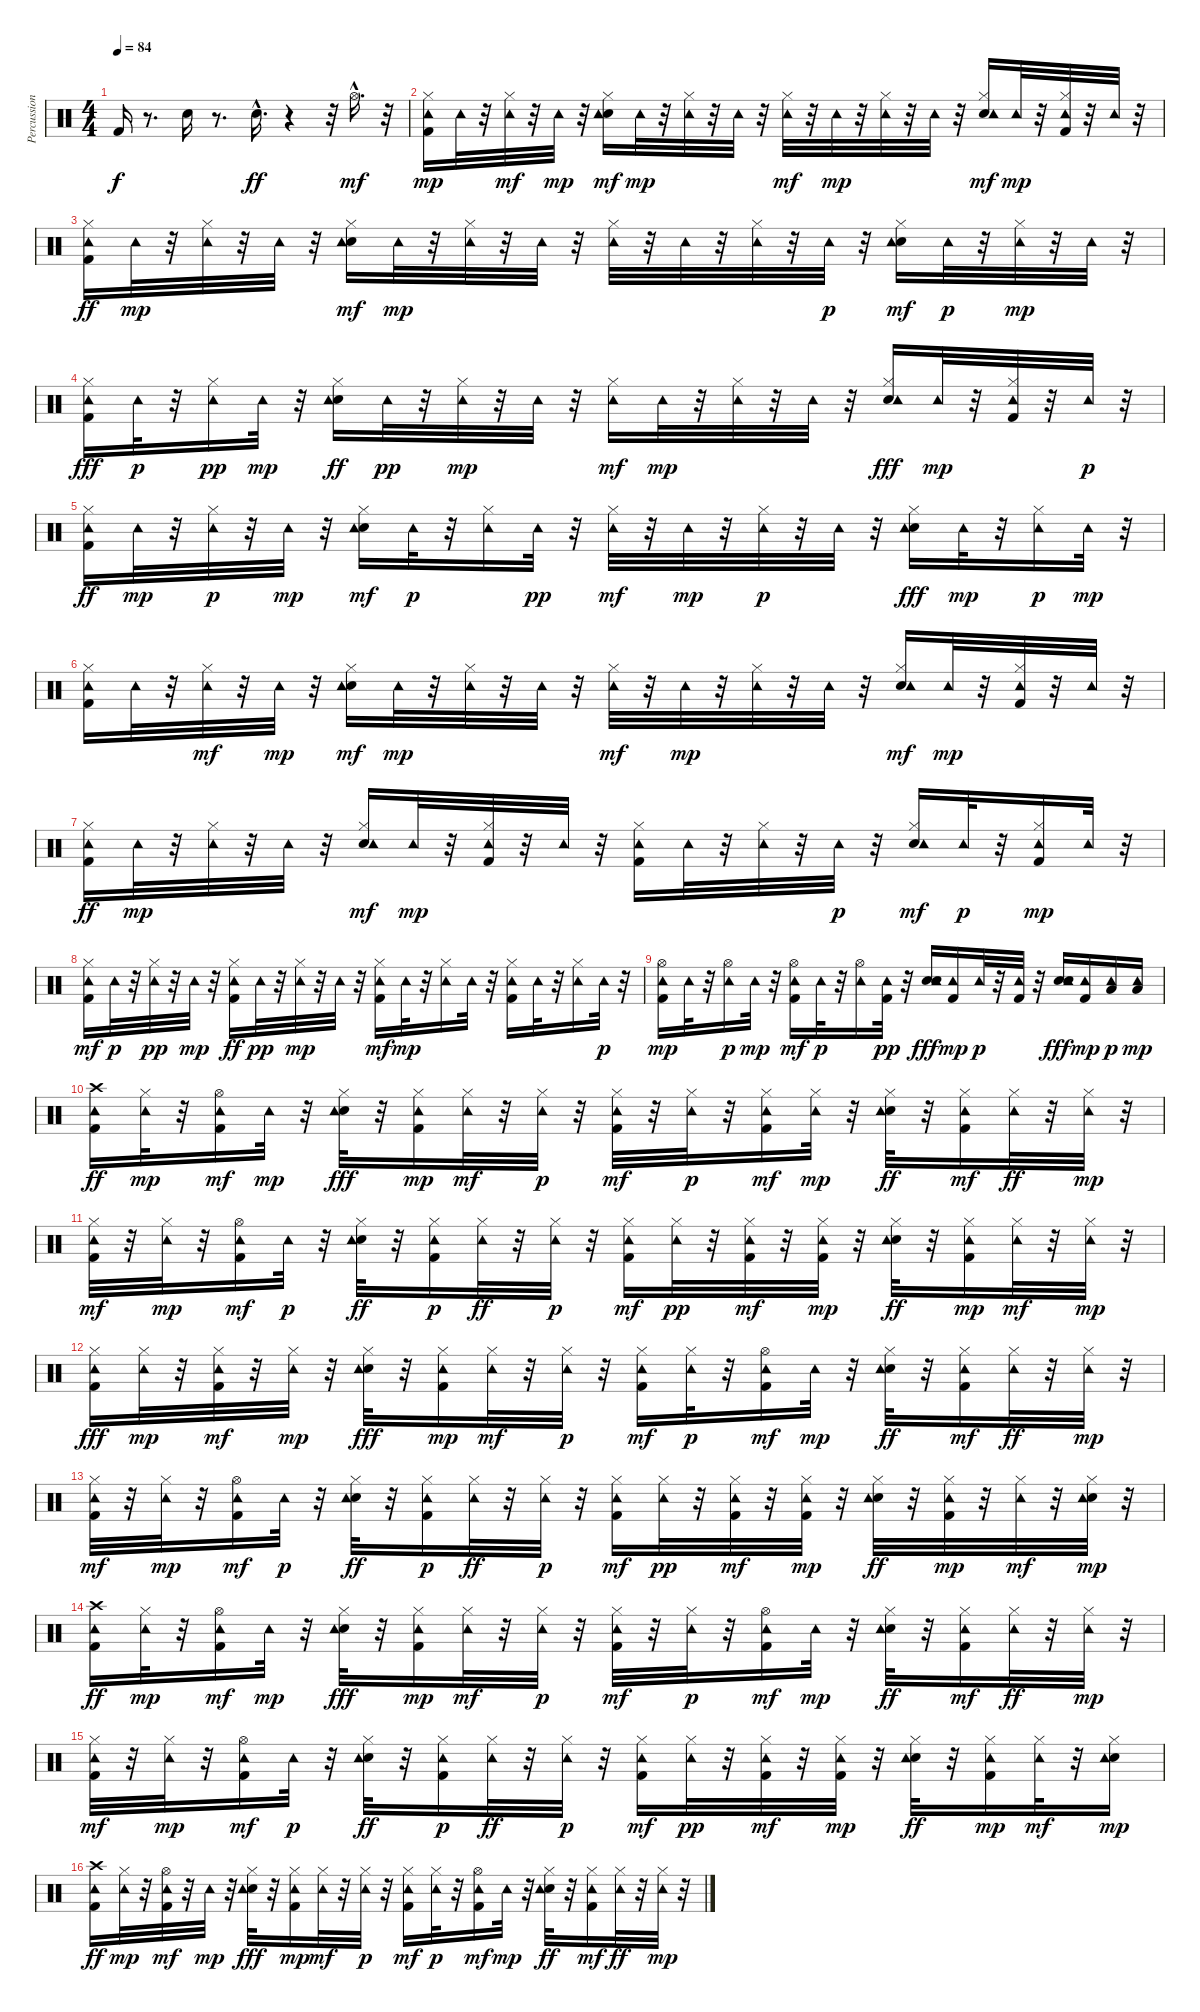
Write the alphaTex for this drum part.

\track ("Percussions" "Percussion") {instrument percussion}
\staff {score}
\articulation defaults
\ts (4 4)
\tempo 84
\clef neutral
\ks c "Kick (hit) 2".16{dy f}
r.8{d} "Snare (hit) 2".16 r.8{d} "Snare (hit) 2"{hac}.16{d dy ff} r.4 r.32 "Hi-Hat (open)"{hac}.16{d dy mf} r.32 |
("Kick (hit) 2" "Hi-Hat (closed)" "Tambourine (hit)").16{dy mp} "Tambourine (hit)".32 r.32 ("Hi-Hat (closed)" "Tambourine (hit)").32{dy mf} r.32 "Tambourine (hit)".32{dy mp} r.32 ("Snare (hit) 2" "Hi-Hat (closed)" "Tambourine (hit)").16{dy mf} "Tambourine (hit)".32{dy mp} r.32 ("Hi-Hat (closed)" "Tambourine (hit)").32 r.32 "Tambourine (hit)".32 r.32 ("Hi-Hat (closed)" "Tambourine (hit)").32{dy mf} r.32 "Tambourine (hit)".32{dy mp} r.32 ("Hi-Hat (closed)" "Tambourine (hit)").32 r.32 "Tambourine (hit)".32 r.32 ("Snare (hit) 2" "Hi-Hat (closed)" "Tambourine (hit)").16{dy mf} "Tambourine (hit)".32{dy mp} r.32 ("Hi-Hat (closed)" "Kick (hit) 2" "Tambourine (hit)").32 r.32 "Tambourine (hit)".32 r.32 |
("Hi-Hat (closed)" "Kick (hit) 2" "Tambourine (hit)").16{dy ff} "Tambourine (hit)".32{dy mp} r.32 ("Hi-Hat (closed)" "Tambourine (hit)").32 r.32 "Tambourine (hit)".32 r.32 ("Snare (hit) 2" "Hi-Hat (closed)" "Tambourine (hit)").16{dy mf} "Tambourine (hit)".32{dy mp} r.32 ("Hi-Hat (closed)" "Tambourine (hit)").32 r.32 "Tambourine (hit)".32 r.32 ("Hi-Hat (closed)" "Tambourine (hit)").32 r.32 "Tambourine (hit)".32 r.32 ("Hi-Hat (closed)" "Tambourine (hit)").32 r.32 "Tambourine (hit)".32{dy p} r.32 ("Snare (hit) 2" "Hi-Hat (closed)" "Tambourine (hit)").16{dy mf} "Tambourine (hit)".32{dy p} r.32 ("Hi-Hat (closed)" "Tambourine (hit)").32{dy mp} r.32 "Tambourine (hit)".32 r.32 |
("Hi-Hat (closed)" "Kick (hit) 2" "Tambourine (hit)").16{dy fff} "Tambourine (hit)".32{dy p} r.32 ("Hi-Hat (closed)" "Tambourine (hit)").16{dy pp} "Tambourine (hit)".32{dy mp} r.32 ("Snare (hit) 2" "Hi-Hat (closed)" "Tambourine (hit)").16{dy ff} "Tambourine (hit)".32{dy pp} r.32 ("Hi-Hat (closed)" "Tambourine (hit)").32{dy mp} r.32 "Tambourine (hit)".32 r.32 ("Hi-Hat (closed)" "Tambourine (hit)").16{dy mf} "Tambourine (hit)".32{dy mp} r.32 ("Hi-Hat (closed)" "Tambourine (hit)").32 r.32 "Tambourine (hit)".32 r.32 ("Snare (hit) 2" "Hi-Hat (closed)" "Tambourine (hit)").16{dy fff} "Tambourine (hit)".32{dy mp} r.32 ("Kick (hit) 2" "Hi-Hat (closed)" "Tambourine (hit)").32 r.32 "Tambourine (hit)".32{dy p} r.32 |
("Hi-Hat (closed)" "Kick (hit) 2" "Tambourine (hit)").16{dy ff} "Tambourine (hit)".32{dy mp} r.32 ("Hi-Hat (closed)" "Tambourine (hit)").32{dy p} r.32 "Tambourine (hit)".32{dy mp} r.32 ("Snare (hit) 2" "Hi-Hat (closed)" "Tambourine (hit)").16{dy mf} "Tambourine (hit)".32{dy p} r.32 ("Hi-Hat (closed)" "Tambourine (hit)").16 "Tambourine (hit)".32{dy pp} r.32 ("Hi-Hat (closed)" "Tambourine (hit)").32{dy mf} r.32 "Tambourine (hit)".32{dy mp} r.32 ("Hi-Hat (closed)" "Tambourine (hit)").32{dy p} r.32 "Tambourine (hit)".32 r.32 ("Snare (hit) 2" "Hi-Hat (closed)" "Tambourine (hit)").16{dy fff} "Tambourine (hit)".32{dy mp} r.32 ("Hi-Hat (closed)" "Tambourine (hit)").16{dy p} "Tambourine (hit)".32{dy mp} r.32 |
("Kick (hit) 2" "Hi-Hat (closed)" "Tambourine (hit)").16 "Tambourine (hit)".32 r.32 ("Hi-Hat (closed)" "Tambourine (hit)").32{dy mf} r.32 "Tambourine (hit)".32{dy mp} r.32 ("Snare (hit) 2" "Hi-Hat (closed)" "Tambourine (hit)").16{dy mf} "Tambourine (hit)".32{dy mp} r.32 ("Hi-Hat (closed)" "Tambourine (hit)").32 r.32 "Tambourine (hit)".32 r.32 ("Hi-Hat (closed)" "Tambourine (hit)").32{dy mf} r.32 "Tambourine (hit)".32{dy mp} r.32 ("Hi-Hat (closed)" "Tambourine (hit)").32 r.32 "Tambourine (hit)".32 r.32 ("Snare (hit) 2" "Hi-Hat (closed)" "Tambourine (hit)").16{dy mf} "Tambourine (hit)".32{dy mp} r.32 ("Hi-Hat (closed)" "Kick (hit) 2" "Tambourine (hit)").32 r.32 "Tambourine (hit)".32 r.32 |
("Hi-Hat (closed)" "Kick (hit) 2" "Tambourine (hit)").16{dy ff} "Tambourine (hit)".32{dy mp} r.32 ("Hi-Hat (closed)" "Tambourine (hit)").32 r.32 "Tambourine (hit)".32 r.32 ("Snare (hit) 2" "Hi-Hat (closed)" "Tambourine (hit)").16{dy mf} "Tambourine (hit)".32{dy mp} r.32 ("Kick (hit) 2" "Hi-Hat (closed)" "Tambourine (hit)").32 r.32 "Tambourine (hit)".32 r.32 ("Kick (hit) 2" "Hi-Hat (closed)" "Tambourine (hit)").16 "Tambourine (hit)".32 r.32 ("Hi-Hat (closed)" "Tambourine (hit)").32 r.32 "Tambourine (hit)".32{dy p} r.32 ("Snare (hit) 2" "Hi-Hat (closed)" "Tambourine (hit)").16{dy mf} "Tambourine (hit)".32{dy p} r.32 ("Kick (hit) 2" "Hi-Hat (closed)" "Tambourine (hit)").16{dy mp} "Tambourine (hit)".32 r.32 |
("Hi-Hat (closed)" "Kick (hit) 2" "Tambourine (hit)").16{dy mf} "Tambourine (hit)".32{dy p} r.32 ("Hi-Hat (closed)" "Tambourine (hit)").32{dy pp} r.32 "Tambourine (hit)".32{dy mp} r.32 ("Hi-Hat (closed)" "Kick (hit) 2" "Tambourine (hit)").16{dy ff} "Tambourine (hit)".32{dy pp} r.32 ("Hi-Hat (closed)" "Tambourine (hit)").32{dy mp} r.32 "Tambourine (hit)".32 r.32 ("Hi-Hat (closed)" "Kick (hit) 2" "Tambourine (hit)").16{dy mf} "Tambourine (hit)".32{dy mp} r.32 ("Hi-Hat (closed)" "Tambourine (hit)").16 "Tambourine (hit)".32 r.32 ("Hi-Hat (closed)" "Kick (hit) 2" "Tambourine (hit)").16 "Tambourine (hit)".32 r.32 ("Hi-Hat (closed)" "Tambourine (hit)").16 "Tambourine (hit)".32{dy p} r.32 |
("Hi-Hat (open)" "Kick (hit) 2" "Tambourine (hit)").16{dy mp} "Tambourine (hit)".32 r.32 ("Hi-Hat (open)" "Tambourine (hit)").16{dy p} "Tambourine (hit)".32{dy mp} r.32 ("Hi-Hat (open)" "Kick (hit) 2" "Tambourine (hit)").16{dy mf} "Tambourine (hit)".32{dy p} r.32 ("Hi-Hat (open)" "Tambourine (hit)").16 ("Kick (hit) 2" "Tambourine (hit)").32{dy pp} r.32 ("Snare (hit) 2" "Tambourine (hit)" "Snare (hit) 2").16{dy fff} ("Kick (hit) 2" "Tambourine (hit)").16{dy mp} "Tambourine (hit)".32{dy p} r.32 ("Kick (hit) 2" "Tambourine (hit)").32 r.32 ("Snare (hit) 2" "Tambourine (hit)" "Snare (hit) 2").16{dy fff} ("Kick (hit) 2" "Tambourine (hit)").16{dy mp} ("Low Tom (hit)" "Tambourine (hit)").16{dy p} ("Low Floor Tom (hit)" "Tambourine (hit)").16{dy mp} |
("Crash high (hit)" "Kick (hit) 2" "Tambourine (hit)").16{dy ff} ("Hi-Hat (closed)" "Tambourine (hit)").32{dy mp} r.32 ("Hi-Hat (open)" "Kick (hit) 2" "Tambourine (hit)").16{dy mf} "Tambourine (hit)".32{dy mp} r.32 ("Hi-Hat (closed)" "Snare (hit) 2" "Tambourine (hit)").32{dy fff} r.32 ("Hi-Hat (closed)" "Kick (hit) 2" "Tambourine (hit)").16{dy mp} ("Hi-Hat (closed)" "Tambourine (hit)").32{dy mf} r.32 ("Hi-Hat (closed)" "Tambourine (hit)").32{dy p} r.32 ("Kick (hit) 2" "Hi-Hat (closed)" "Tambourine (hit)").32{dy mf} r.32 ("Hi-Hat (closed)" "Tambourine (hit)").32{dy p} r.32 ("Hi-Hat (closed)" "Kick (hit) 2" "Tambourine (hit)").16{dy mf} ("Hi-Hat (closed)" "Tambourine (hit)").32{dy mp} r.32 ("Hi-Hat (closed)" "Snare (hit) 2" "Tambourine (hit)").32{dy ff} r.32 ("Hi-Hat (closed)" "Kick (hit) 2" "Tambourine (hit)").16{dy mf} ("Hi-Hat (closed)" "Tambourine (hit)").32{dy ff} r.32 ("Hi-Hat (closed)" "Tambourine (hit)").32{dy mp} r.32 |
("Hi-Hat (closed)" "Kick (hit) 2" "Tambourine (hit)").32{dy mf} r.32 ("Hi-Hat (closed)" "Tambourine (hit)").32{dy mp} r.32 ("Hi-Hat (open)" "Kick (hit) 2" "Tambourine (hit)").16{dy mf} "Tambourine (hit)".32{dy p} r.32 ("Hi-Hat (closed)" "Snare (hit) 2" "Tambourine (hit)").32{dy ff} r.32 ("Kick (hit) 2" "Hi-Hat (closed)" "Tambourine (hit)").16{dy p} ("Hi-Hat (closed)" "Tambourine (hit)").32{dy ff} r.32 ("Hi-Hat (closed)" "Tambourine (hit)").32{dy p} r.32 ("Kick (hit) 2" "Hi-Hat (closed)" "Tambourine (hit)").16{dy mf} ("Hi-Hat (closed)" "Tambourine (hit)").32{dy pp} r.32 ("Hi-Hat (closed)" "Kick (hit) 2" "Tambourine (hit)").32{dy mf} r.32 ("Hi-Hat (closed)" "Kick (hit) 2" "Tambourine (hit)").32{dy mp} r.32 ("Snare (hit) 2" "Hi-Hat (closed)" "Tambourine (hit)").32{dy ff} r.32 ("Kick (hit) 2" "Hi-Hat (closed)" "Tambourine (hit)").16{dy mp} ("Hi-Hat (closed)" "Tambourine (hit)").32{dy mf} r.32 ("Hi-Hat (closed)" "Tambourine (hit)").32{dy mp} r.32 |
("Kick (hit) 2" "Hi-Hat (closed)" "Tambourine (hit)").16{dy fff} ("Hi-Hat (closed)" "Tambourine (hit)").32{dy mp} r.32 ("Kick (hit) 2" "Hi-Hat (closed)" "Tambourine (hit)").32{dy mf} r.32 ("Hi-Hat (closed)" "Tambourine (hit)").32{dy mp} r.32 ("Snare (hit) 2" "Hi-Hat (closed)" "Tambourine (hit)").32{dy fff} r.32 ("Kick (hit) 2" "Hi-Hat (closed)" "Tambourine (hit)").16{dy mp} ("Hi-Hat (closed)" "Tambourine (hit)").32{dy mf} r.32 ("Hi-Hat (closed)" "Tambourine (hit)").32{dy p} r.32 ("Kick (hit) 2" "Hi-Hat (closed)" "Tambourine (hit)").16{dy mf} ("Hi-Hat (closed)" "Tambourine (hit)").32{dy p} r.32 ("Hi-Hat (open)" "Kick (hit) 2" "Tambourine (hit)").16{dy mf} "Tambourine (hit)".32{dy mp} r.32 ("Hi-Hat (closed)" "Snare (hit) 2" "Tambourine (hit)").32{dy ff} r.32 ("Kick (hit) 2" "Hi-Hat (closed)" "Tambourine (hit)").16{dy mf} ("Hi-Hat (closed)" "Tambourine (hit)").32{dy ff} r.32 ("Hi-Hat (closed)" "Tambourine (hit)").32{dy mp} r.32 |
("Kick (hit) 2" "Hi-Hat (closed)" "Tambourine (hit)").32{dy mf} r.32 ("Hi-Hat (closed)" "Tambourine (hit)").32{dy mp} r.32 ("Hi-Hat (open)" "Kick (hit) 2" "Tambourine (hit)").16{dy mf} "Tambourine (hit)".32{dy p} r.32 ("Hi-Hat (closed)" "Snare (hit) 2" "Tambourine (hit)").32{dy ff} r.32 ("Hi-Hat (closed)" "Kick (hit) 2" "Tambourine (hit)").16{dy p} ("Hi-Hat (closed)" "Tambourine (hit)").32{dy ff} r.32 ("Hi-Hat (closed)" "Tambourine (hit)").32{dy p} r.32 ("Kick (hit) 2" "Hi-Hat (closed)" "Tambourine (hit)").16{dy mf} ("Hi-Hat (closed)" "Tambourine (hit)").32{dy pp} r.32 ("Kick (hit) 2" "Hi-Hat (closed)" "Tambourine (hit)").32{dy mf} r.32 ("Kick (hit) 2" "Hi-Hat (closed)" "Tambourine (hit)").32{dy mp} r.32 ("Snare (hit) 2" "Hi-Hat (closed)" "Tambourine (hit)").32{dy ff} r.32 ("Kick (hit) 2" "Hi-Hat (closed)" "Tambourine (hit)").32{dy mp} r.32 ("Hi-Hat (closed)" "Tambourine (hit)").32{dy mf} r.32 ("Hi-Hat (closed)" "Snare (hit) 2" "Tambourine (hit)").32{dy mp} r.32 |
("Crash high (hit)" "Kick (hit) 2" "Tambourine (hit)").16{dy ff} ("Hi-Hat (closed)" "Tambourine (hit)").32{dy mp} r.32 ("Hi-Hat (open)" "Kick (hit) 2" "Tambourine (hit)").16{dy mf} "Tambourine (hit)".32{dy mp} r.32 ("Hi-Hat (closed)" "Snare (hit) 2" "Tambourine (hit)").32{dy fff} r.32 ("Hi-Hat (closed)" "Kick (hit) 2" "Tambourine (hit)").16{dy mp} ("Hi-Hat (closed)" "Tambourine (hit)").32{dy mf} r.32 ("Hi-Hat (closed)" "Tambourine (hit)").32{dy p} r.32 ("Kick (hit) 2" "Hi-Hat (closed)" "Tambourine (hit)").32{dy mf} r.32 ("Hi-Hat (closed)" "Tambourine (hit)").32{dy p} r.32 ("Hi-Hat (open)" "Kick (hit) 2" "Tambourine (hit)").16{dy mf} "Tambourine (hit)".32{dy mp} r.32 ("Hi-Hat (closed)" "Snare (hit) 2" "Tambourine (hit)").32{dy ff} r.32 ("Hi-Hat (closed)" "Kick (hit) 2" "Tambourine (hit)").16{dy mf} ("Hi-Hat (closed)" "Tambourine (hit)").32{dy ff} r.32 ("Hi-Hat (closed)" "Tambourine (hit)").32{dy mp} r.32 |
("Hi-Hat (closed)" "Kick (hit) 2" "Tambourine (hit)").32{dy mf} r.32 ("Hi-Hat (closed)" "Tambourine (hit)").32{dy mp} r.32 ("Hi-Hat (open)" "Kick (hit) 2" "Tambourine (hit)").16{dy mf} "Tambourine (hit)".32{dy p} r.32 ("Hi-Hat (closed)" "Snare (hit) 2" "Tambourine (hit)").32{dy ff} r.32 ("Kick (hit) 2" "Hi-Hat (closed)" "Tambourine (hit)").16{dy p} ("Hi-Hat (closed)" "Tambourine (hit)").32{dy ff} r.32 ("Hi-Hat (closed)" "Tambourine (hit)").32{dy p} r.32 ("Kick (hit) 2" "Hi-Hat (closed)" "Tambourine (hit)").16{dy mf} ("Hi-Hat (closed)" "Tambourine (hit)").32{dy pp} r.32 ("Hi-Hat (closed)" "Kick (hit) 2" "Tambourine (hit)").32{dy mf} r.32 ("Hi-Hat (closed)" "Kick (hit) 2" "Tambourine (hit)").32{dy mp} r.32 ("Snare (hit) 2" "Hi-Hat (closed)" "Tambourine (hit)").32{dy ff} r.32 ("Kick (hit) 2" "Hi-Hat (closed)" "Tambourine (hit)").16{dy mp} ("Hi-Hat (closed)" "Tambourine (hit)").32{dy mf} r.32 ("Snare (hit) 2" "Hi-Hat (closed)" "Tambourine (hit)").16{dy mp} |
("Crash high (hit)" "Kick (hit) 2" "Tambourine (hit)").16{dy ff} ("Hi-Hat (closed)" "Tambourine (hit)").32{dy mp} r.32 ("Hi-Hat (open)" "Kick (hit) 2" "Tambourine (hit)").32{dy mf} r.32 "Tambourine (hit)".32{dy mp} r.32 ("Snare (hit) 2" "Hi-Hat (closed)" "Tambourine (hit)").32{dy fff} r.32 ("Kick (hit) 2" "Hi-Hat (closed)" "Tambourine (hit)").16{dy mp} ("Hi-Hat (closed)" "Tambourine (hit)").32{dy mf} r.32 ("Hi-Hat (closed)" "Tambourine (hit)").32{dy p} r.32 ("Kick (hit) 2" "Hi-Hat (closed)" "Tambourine (hit)").16{dy mf} ("Hi-Hat (closed)" "Tambourine (hit)").32{dy p} r.32 ("Hi-Hat (open)" "Kick (hit) 2" "Tambourine (hit)").16{dy mf} "Tambourine (hit)".32{dy mp} r.32 ("Hi-Hat (closed)" "Snare (hit) 2" "Tambourine (hit)").32{dy ff} r.32 ("Kick (hit) 2" "Hi-Hat (closed)" "Tambourine (hit)").16{dy mf} ("Hi-Hat (closed)" "Tambourine (hit)").32{dy ff} r.32 ("Hi-Hat (closed)" "Tambourine (hit)").32{dy mp} r.32
